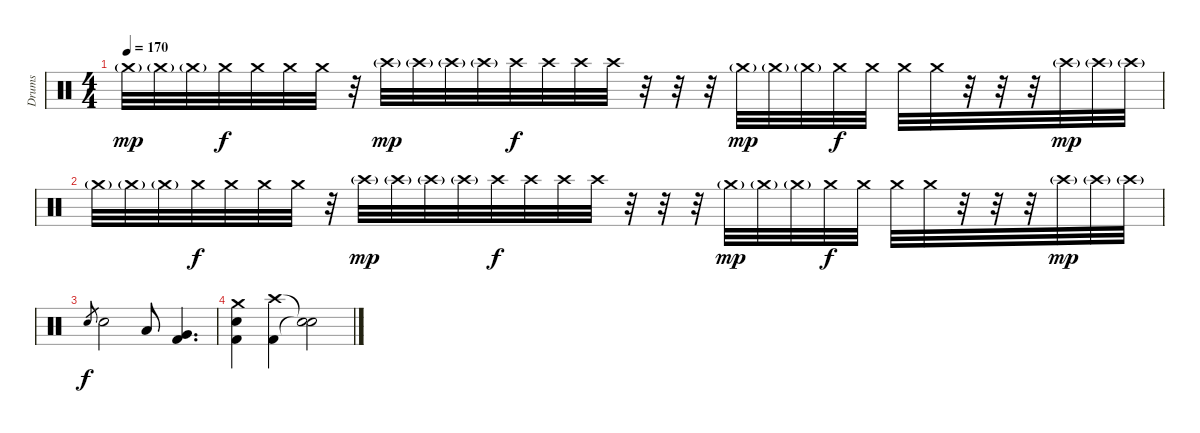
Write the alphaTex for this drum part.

\track ("Drums" "Drums") {instrument percussion}
\staff {score}
\articulation defaults
\ts (4 4)
\tempo 170
\clef neutral
\ks c "Crash medium (hit)"{g}.32{dy mp} "Crash medium (hit)"{g}.32 "Crash medium (hit)"{g}.32 "Crash medium (hit)".32{dy f} "Crash medium (hit)".32 "Crash medium (hit)".32 "Crash medium (hit)".32
r.32 "Crash high (hit)"{g}.32{dy mp} "Crash high (hit)"{g}.32 "Crash high (hit)"{g}.32 "Crash high (hit)"{g}.32 "Crash high (hit)".32{dy f} "Crash high (hit)".32 "Crash high (hit)".32 "Crash high (hit)".32 r.32 r.32 r.32 "Crash medium (hit)"{g}.32{dy mp} "Crash medium (hit)"{g}.32 "Crash medium (hit)"{g}.32 "Crash medium (hit)".32{dy f} "Crash medium (hit)".32 "Crash medium (hit)".32 "Crash medium (hit)".32 r.32 r.32 r.32 "Crash high (hit)"{g}.32{dy mp} "Crash high (hit)"{g}.32 "Crash high (hit)"{g}.32 |
"Crash medium (hit)"{g}.32 "Crash medium (hit)"{g}.32 "Crash medium (hit)"{g}.32 "Crash medium (hit)".32{dy f} "Crash medium (hit)".32 "Crash medium (hit)".32 "Crash medium (hit)".32 r.32 "Crash high (hit)"{g}.32{dy mp} "Crash high (hit)"{g}.32 "Crash high (hit)"{g}.32 "Crash high (hit)"{g}.32 "Crash high (hit)".32{dy f} "Crash high (hit)".32 "Crash high (hit)".32 "Crash high (hit)".32 r.32 r.32 r.32 "Crash medium (hit)"{g}.32{dy mp} "Crash medium (hit)"{g}.32 "Crash medium (hit)"{g}.32 "Crash medium (hit)".32{dy f} "Crash medium (hit)".32 "Crash medium (hit)".32 "Crash medium (hit)".32 r.32 r.32 r.32 "Crash high (hit)"{g}.32{dy mp} "Crash high (hit)"{g}.32 "Crash high (hit)"{g}.32 |
"Electric Snare (hit)".8{gr dy f} "Electric Snare (hit)".2 "Low Tom (hit)".8 ("Very Low Tom (hit)" "Kick (hit) 2").4{d} |
("Crash medium (hit)" "Electric Snare (hit)" "Kick (hit) 2").4 ("Crash high (hit)" "Kick (hit) 2").4 ("Snare (hit)"{t} "Snare (hit)"{t}).2
